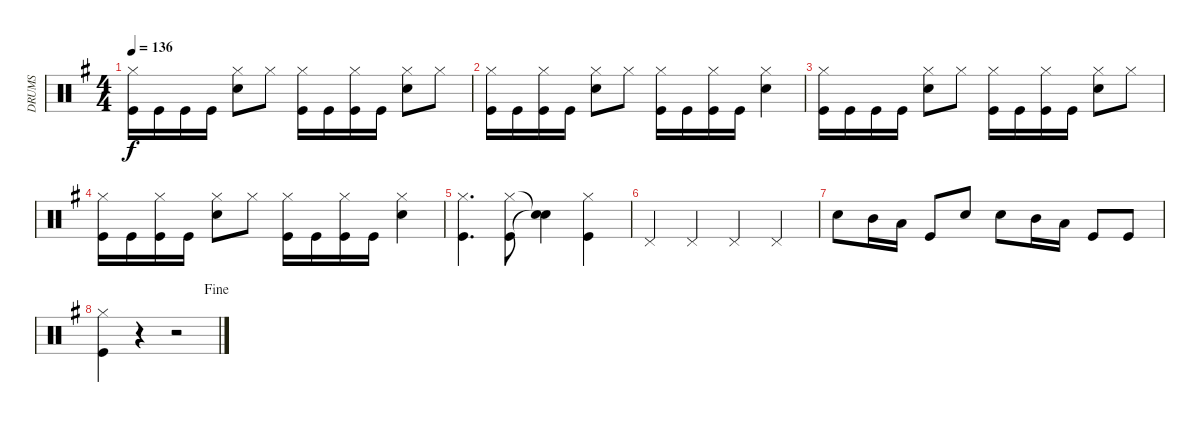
\track ("DRUMS" "DRUMS") {instrument percussion}
\staff {score}
\articulation defaults
\ts (4 4)
\tempo 136
\clef neutral
\ks eminor
("Hi-Hat (closed)" "Kick (hit)").16{dy f} "Kick (hit)".16 "Kick (hit)".16 "Kick (hit)".16 ("Hi-Hat (closed)" "Snare (hit) 2").8 "Hi-Hat (closed)".8 ("Hi-Hat (closed)" "Kick (hit)").16 "Kick (hit)".16 ("Hi-Hat (closed)" "Kick (hit)").16 "Kick (hit)".16 ("Hi-Hat (closed)" "Snare (hit) 2").8 "Hi-Hat (closed)".8 |
("Hi-Hat (closed)" "Kick (hit)").16 "Kick (hit)".16 ("Hi-Hat (closed)" "Kick (hit)").16 "Kick (hit)".16 ("Hi-Hat (closed)" "Snare (hit) 2").8 "Hi-Hat (closed)".8 ("Hi-Hat (closed)" "Kick (hit)").16 "Kick (hit)".16 ("Hi-Hat (closed)" "Kick (hit)").16 "Kick (hit)".16 ("Hi-Hat (closed)" "Snare (hit) 2").4 |
("Hi-Hat (closed)" "Kick (hit)").16 "Kick (hit)".16 "Kick (hit)".16 "Kick (hit)".16 ("Hi-Hat (closed)" "Snare (hit) 2").8 "Hi-Hat (closed)".8 ("Hi-Hat (closed)" "Kick (hit)").16 "Kick (hit)".16 ("Hi-Hat (closed)" "Kick (hit)").16 "Kick (hit)".16 ("Hi-Hat (closed)" "Snare (hit) 2").8 "Hi-Hat (closed)".8 |
("Hi-Hat (closed)" "Kick (hit)").16 "Kick (hit)".16 ("Hi-Hat (closed)" "Kick (hit)").16 "Kick (hit)".16 ("Hi-Hat (closed)" "Snare (hit) 2").8 "Hi-Hat (closed)".8 ("Hi-Hat (closed)" "Kick (hit)").16 "Kick (hit)".16 ("Hi-Hat (closed)" "Kick (hit)").16 "Kick (hit)".16 ("Hi-Hat (closed)" "Snare (hit) 2").4 |
("Hi-Hat (closed)" "Kick (hit)").4{d} ("Hi-Hat (closed)" "Kick (hit)").8 ("Snare (hit)"{t} "Snare (hit)"{t}).4 ("Hi-Hat (closed)" "Kick (hit)").4 |
"Pedal Hi-Hat (hit)".4 "Pedal Hi-Hat (hit)".4 "Pedal Hi-Hat (hit)".4 "Pedal Hi-Hat (hit)".4 |
"Snare (hit) 2".8 "Mid Tom (hit)".16 "Low Tom (hit)".16 "Kick (hit)".8 "Snare (hit) 2".8 "Snare (hit) 2".8 "Mid Tom (hit)".16 "Low Tom (hit)".16 "Kick (hit)".8 "Kick (hit)".8 |
\jump fine
("Hi-Hat (closed)" "Kick (hit)").4 r.4 r.2
